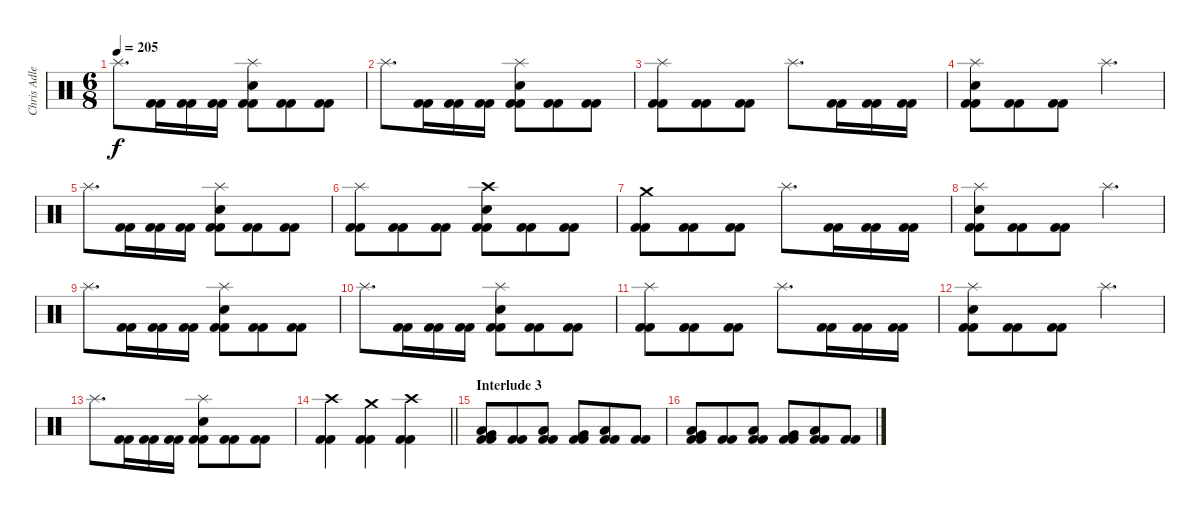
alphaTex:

\track ("Chris Adler" "Chris Adle") {instrument percussion}
\staff {score}
\articulation defaults
\ts (6 8)
\tempo 205
\clef neutral
\ks c "Splash (hit)".8{d dy f}
("Kick (hit) 2" "Kick (hit) 2").16 ("Kick (hit) 2" "Kick (hit) 2").16 ("Kick (hit) 2" "Kick (hit) 2").16 ("Splash (hit)" "Electric Snare (hit)" "Kick (hit) 2" "Kick (hit) 2").8 ("Kick (hit) 2" "Kick (hit) 2").8 ("Kick (hit) 2" "Kick (hit) 2").8 |
"Splash (hit)".8{d} ("Kick (hit) 2" "Kick (hit) 2").16 ("Kick (hit) 2" "Kick (hit) 2").16 ("Kick (hit) 2" "Kick (hit) 2").16 ("Splash (hit)" "Electric Snare (hit)" "Kick (hit) 2" "Kick (hit) 2").8 ("Kick (hit) 2" "Kick (hit) 2").8 ("Kick (hit) 2" "Kick (hit) 2").8 |
("Splash (hit)" "Kick (hit) 2" "Kick (hit) 2").8 ("Kick (hit) 2" "Kick (hit) 2").8 ("Kick (hit) 2" "Kick (hit) 2").8 "Splash (hit)".8{d} ("Kick (hit) 2" "Kick (hit) 2").16 ("Kick (hit) 2" "Kick (hit) 2").16 ("Kick (hit) 2" "Kick (hit) 2").16 |
("Splash (hit)" "Electric Snare (hit)" "Kick (hit) 2" "Kick (hit) 2").8 ("Kick (hit) 2" "Kick (hit) 2").8 ("Kick (hit) 2" "Kick (hit) 2").8 "Splash (hit)".4{d} |
"Splash (hit)".8{d} ("Kick (hit) 2" "Kick (hit) 2").16 ("Kick (hit) 2" "Kick (hit) 2").16 ("Kick (hit) 2" "Kick (hit) 2").16 ("Splash (hit)" "Electric Snare (hit)" "Kick (hit) 2" "Kick (hit) 2").8 ("Kick (hit) 2" "Kick (hit) 2").8 ("Kick (hit) 2" "Kick (hit) 2").8 |
("Splash (hit)" "Kick (hit) 2" "Kick (hit) 2").8 ("Kick (hit) 2" "Kick (hit) 2").8 ("Kick (hit) 2" "Kick (hit) 2").8 ("Crash high (hit)" "Electric Snare (hit)" "Kick (hit) 2" "Kick (hit) 2").8 ("Kick (hit) 2" "Kick (hit) 2").8 ("Kick (hit) 2" "Kick (hit) 2").8 |
("Crash medium (hit)" "Kick (hit) 2" "Kick (hit) 2").8 ("Kick (hit) 2" "Kick (hit) 2").8 ("Kick (hit) 2" "Kick (hit) 2").8 "Splash (hit)".8{d} ("Kick (hit) 2" "Kick (hit) 2").16 ("Kick (hit) 2" "Kick (hit) 2").16 ("Kick (hit) 2" "Kick (hit) 2").16 |
("Splash (hit)" "Electric Snare (hit)" "Kick (hit) 2" "Kick (hit) 2").8 ("Kick (hit) 2" "Kick (hit) 2").8 ("Kick (hit) 2" "Kick (hit) 2").8 "Splash (hit)".4{d} |
"Splash (hit)".8{d} ("Kick (hit) 2" "Kick (hit) 2").16 ("Kick (hit) 2" "Kick (hit) 2").16 ("Kick (hit) 2" "Kick (hit) 2").16 ("Splash (hit)" "Electric Snare (hit)" "Kick (hit) 2" "Kick (hit) 2").8 ("Kick (hit) 2" "Kick (hit) 2").8 ("Kick (hit) 2" "Kick (hit) 2").8 |
"Splash (hit)".8{d} ("Kick (hit) 2" "Kick (hit) 2").16 ("Kick (hit) 2" "Kick (hit) 2").16 ("Kick (hit) 2" "Kick (hit) 2").16 ("Splash (hit)" "Electric Snare (hit)" "Kick (hit) 2" "Kick (hit) 2").8 ("Kick (hit) 2" "Kick (hit) 2").8 ("Kick (hit) 2" "Kick (hit) 2").8 |
("Splash (hit)" "Kick (hit) 2" "Kick (hit) 2").8 ("Kick (hit) 2" "Kick (hit) 2").8 ("Kick (hit) 2" "Kick (hit) 2").8 "Splash (hit)".8{d} ("Kick (hit) 2" "Kick (hit) 2").16 ("Kick (hit) 2" "Kick (hit) 2").16 ("Kick (hit) 2" "Kick (hit) 2").16 |
("Splash (hit)" "Electric Snare (hit)" "Kick (hit) 2" "Kick (hit) 2").8 ("Kick (hit) 2" "Kick (hit) 2").8 ("Kick (hit) 2" "Kick (hit) 2").8 "Splash (hit)".4{d} |
"Splash (hit)".8{d} ("Kick (hit) 2" "Kick (hit) 2").16 ("Kick (hit) 2" "Kick (hit) 2").16 ("Kick (hit) 2" "Kick (hit) 2").16 ("Splash (hit)" "Electric Snare (hit)" "Kick (hit) 2" "Kick (hit) 2").8 ("Kick (hit) 2" "Kick (hit) 2").8 ("Kick (hit) 2" "Kick (hit) 2").8 |
\barLineRight lightlight
("Crash high (hit)" "Kick (hit) 2" "Kick (hit) 2").4 ("Crash medium (hit)" "Kick (hit) 2" "Kick (hit) 2").4 ("Crash high (hit)" "Kick (hit) 2" "Kick (hit) 2").4 |
\section ("" "Interlude 3")
("Very Low Tom (hit)" "Low Floor Tom (hit)" "Kick (hit) 2" "Kick (hit) 2").8 ("Kick (hit) 2" "Kick (hit) 2").8 ("Low Floor Tom (hit)" "Kick (hit) 2" "Kick (hit) 2").8 ("Very Low Tom (hit)" "Kick (hit) 2" "Kick (hit) 2").8 ("Low Floor Tom (hit)" "Kick (hit) 2" "Kick (hit) 2").8 ("Kick (hit) 2" "Kick (hit) 2").8 |
("Very Low Tom (hit)" "Low Floor Tom (hit)" "Kick (hit) 2" "Kick (hit) 2").8 ("Kick (hit) 2" "Kick (hit) 2").8 ("Low Floor Tom (hit)" "Kick (hit) 2" "Kick (hit) 2").8 ("Very Low Tom (hit)" "Kick (hit) 2" "Kick (hit) 2").8 ("Low Floor Tom (hit)" "Kick (hit) 2" "Kick (hit) 2").8 ("Kick (hit) 2" "Kick (hit) 2").8
